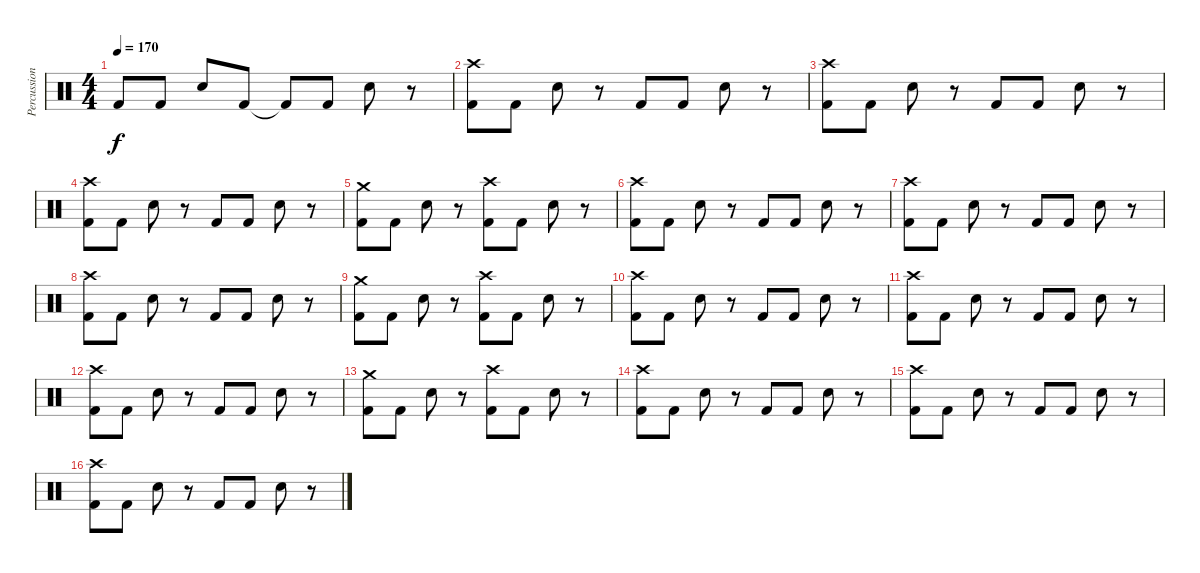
\track ("Percussion" "Percussion") {instrument percussion}
\staff {score}
\articulation defaults
\ts (4 4)
\tempo 170
\clef neutral
\ks c "Kick (hit) 2"{t}.8{dy f} "Kick (hit) 2".8 "Electric Snare (hit)".8 "Kick (hit) 2".8 "Kick (hit) 2"{t}.8 "Kick (hit) 2".8 "Electric Snare (hit)".8
r.8 |
("Crash high (hit)" "Kick (hit) 2").8 "Kick (hit) 2".8 "Electric Snare (hit)".8 r.8 "Kick (hit) 2".8 "Kick (hit) 2".8 "Electric Snare (hit)".8 r.8 |
("Crash high (hit)" "Kick (hit) 2").8 "Kick (hit) 2".8 "Electric Snare (hit)".8 r.8 "Kick (hit) 2".8 "Kick (hit) 2".8 "Electric Snare (hit)".8 r.8 |
("Crash high (hit)" "Kick (hit) 2").8 "Kick (hit) 2".8 "Electric Snare (hit)".8 r.8 "Kick (hit) 2".8 "Kick (hit) 2".8 "Electric Snare (hit)".8 r.8 |
("Crash medium (hit)" "Kick (hit) 2").8 "Kick (hit) 2".8 "Electric Snare (hit)".8 r.8 ("Crash high (hit)" "Kick (hit) 2").8 "Kick (hit) 2".8 "Electric Snare (hit)".8 r.8 |
("Crash high (hit)" "Kick (hit) 2").8 "Kick (hit) 2".8 "Electric Snare (hit)".8 r.8 "Kick (hit) 2".8 "Kick (hit) 2".8 "Electric Snare (hit)".8 r.8 |
("Crash high (hit)" "Kick (hit) 2").8 "Kick (hit) 2".8 "Electric Snare (hit)".8 r.8 "Kick (hit) 2".8 "Kick (hit) 2".8 "Electric Snare (hit)".8 r.8 |
("Crash high (hit)" "Kick (hit) 2").8 "Kick (hit) 2".8 "Electric Snare (hit)".8 r.8 "Kick (hit) 2".8 "Kick (hit) 2".8 "Electric Snare (hit)".8 r.8 |
("Crash medium (hit)" "Kick (hit) 2").8 "Kick (hit) 2".8 "Electric Snare (hit)".8 r.8 ("Crash high (hit)" "Kick (hit) 2").8 "Kick (hit) 2".8 "Electric Snare (hit)".8 r.8 |
("Crash high (hit)" "Kick (hit) 2").8 "Kick (hit) 2".8 "Electric Snare (hit)".8 r.8 "Kick (hit) 2".8 "Kick (hit) 2".8 "Electric Snare (hit)".8 r.8 |
("Crash high (hit)" "Kick (hit) 2").8 "Kick (hit) 2".8 "Electric Snare (hit)".8 r.8 "Kick (hit) 2".8 "Kick (hit) 2".8 "Electric Snare (hit)".8 r.8 |
("Crash high (hit)" "Kick (hit) 2").8 "Kick (hit) 2".8 "Electric Snare (hit)".8 r.8 "Kick (hit) 2".8 "Kick (hit) 2".8 "Electric Snare (hit)".8 r.8 |
("Crash medium (hit)" "Kick (hit) 2").8 "Kick (hit) 2".8 "Electric Snare (hit)".8 r.8 ("Crash high (hit)" "Kick (hit) 2").8 "Kick (hit) 2".8 "Electric Snare (hit)".8 r.8 |
("Crash high (hit)" "Kick (hit) 2").8 "Kick (hit) 2".8 "Electric Snare (hit)".8 r.8 "Kick (hit) 2".8 "Kick (hit) 2".8 "Electric Snare (hit)".8 r.8 |
("Crash high (hit)" "Kick (hit) 2").8 "Kick (hit) 2".8 "Electric Snare (hit)".8 r.8 "Kick (hit) 2".8 "Kick (hit) 2".8 "Electric Snare (hit)".8 r.8 |
("Crash high (hit)" "Kick (hit) 2").8 "Kick (hit) 2".8 "Electric Snare (hit)".8 r.8 "Kick (hit) 2".8 "Kick (hit) 2".8 "Electric Snare (hit)".8 r.8
